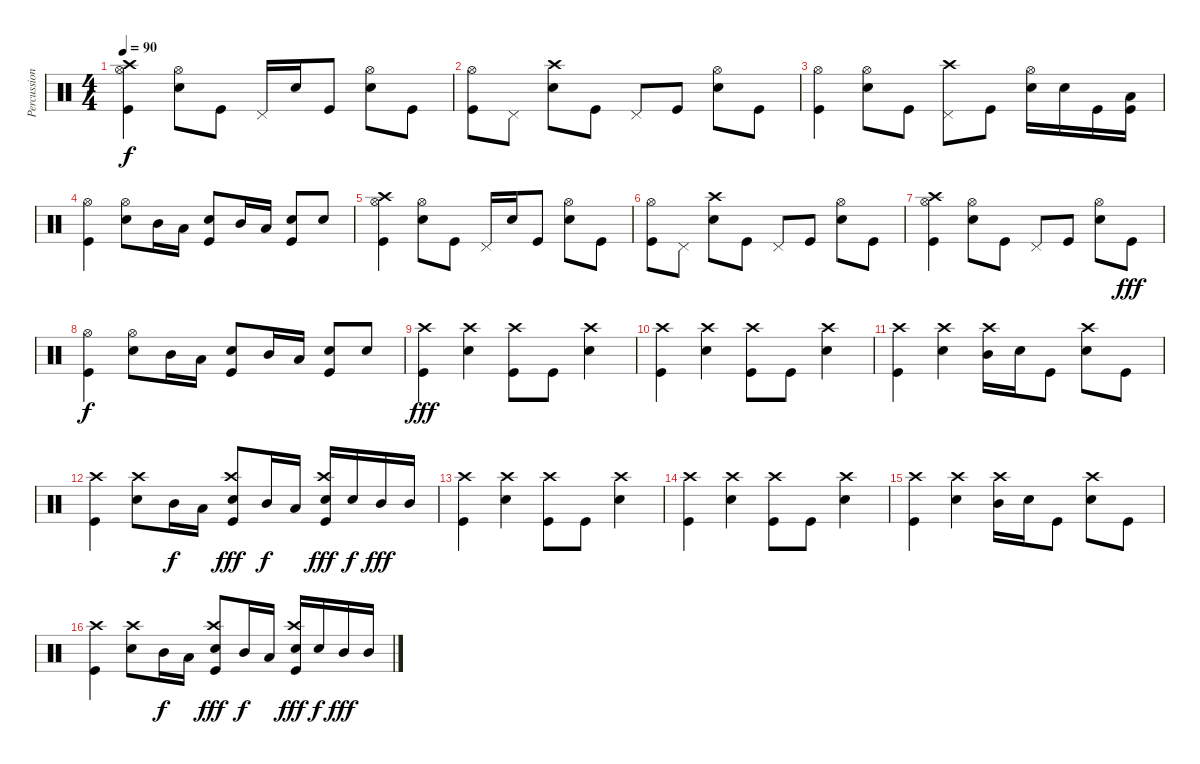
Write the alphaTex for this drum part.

\track ("Percussion" "Percussion") {instrument percussion}
\staff {score}
\articulation defaults
\ts (4 4)
\tempo 90
\clef neutral
\ks c
("Kick (hit)" "Hi-Hat (open)" "Crash high (hit)").4{dy f} ("Snare (hit) 2" "Hi-Hat (open)").8 "Kick (hit)".8 "Pedal Hi-Hat (hit)".16 "Snare (hit) 2".16 "Kick (hit)".8 ("Snare (hit) 2" "Hi-Hat (open)").8 "Kick (hit)".8 |
("Kick (hit)" "Hi-Hat (open)").8 "Pedal Hi-Hat (hit)".8 ("Snare (hit) 2" "Crash high (hit)").8 "Kick (hit)".8 "Pedal Hi-Hat (hit)".8 "Kick (hit)".8 ("Snare (hit) 2" "Hi-Hat (open)").8 "Kick (hit)".8 |
("Kick (hit)" "Hi-Hat (open)").4 ("Snare (hit) 2" "Hi-Hat (open)").8 "Kick (hit)".8 ("Crash high (hit)" "Pedal Hi-Hat (hit)").8 "Kick (hit)".8 ("Snare (hit) 2" "Hi-Hat (open)").16 "Snare (hit) 2".16 "Kick (hit)".16 ("Kick (hit)" "Low Tom (hit)").16 |
("Kick (hit)" "Hi-Hat (open)").4 ("Snare (hit) 2" "Hi-Hat (open)").8 "Mid Tom (hit)".16 "Low Tom (hit)".16 ("Kick (hit)" "Snare (hit) 2").8 "Mid Tom (hit)".16 "Low Tom (hit)".16 ("Kick (hit)" "Snare (hit) 2").8 "Snare (hit) 2".8 |
("Kick (hit)" "Hi-Hat (open)" "Crash high (hit)").4 ("Snare (hit) 2" "Hi-Hat (open)").8 "Kick (hit)".8 "Pedal Hi-Hat (hit)".16 "Snare (hit) 2".16 "Kick (hit)".8 ("Snare (hit) 2" "Hi-Hat (open)").8 "Kick (hit)".8 |
("Kick (hit)" "Hi-Hat (open)").8 "Pedal Hi-Hat (hit)".8 ("Snare (hit) 2" "Crash high (hit)").8 "Kick (hit)".8 "Pedal Hi-Hat (hit)".8 "Kick (hit)".8 ("Snare (hit) 2" "Hi-Hat (open)").8 "Kick (hit)".8 |
("Kick (hit)" "Crash high (hit)" "Hi-Hat (open)").4 ("Snare (hit) 2" "Hi-Hat (open)").8 "Kick (hit)".8 "Pedal Hi-Hat (hit)".8 "Kick (hit)".8 ("Snare (hit) 2" "Hi-Hat (open)").8 "Kick (hit)".8{dy fff} |
("Kick (hit)" "Hi-Hat (open)").4{dy f} ("Snare (hit) 2" "Hi-Hat (open)").8 "Mid Tom (hit)".16 "Low Tom (hit)".16 ("Kick (hit)" "Snare (hit) 2").8 "Mid Tom (hit)".16 "Low Tom (hit)".16 ("Kick (hit)" "Snare (hit) 2").8 "Snare (hit) 2".8 |
("Crash high (hit)" "Kick (hit)").4{dy fff} ("Crash high (hit)" "Snare (hit) 2").4 ("Crash high (hit)" "Kick (hit)").8 "Kick (hit)".8 ("Crash high (hit)" "Snare (hit) 2").4 |
("Crash high (hit)" "Kick (hit)").4 ("Crash high (hit)" "Snare (hit) 2").4 ("Crash high (hit)" "Kick (hit)").8 "Kick (hit)".8 ("Crash high (hit)" "Snare (hit) 2").4 |
("Crash high (hit)" "Kick (hit)").4 ("Crash high (hit)" "Snare (hit) 2").4 ("Crash high (hit)" "Mid Tom (hit)").16 "Snare (hit) 2".16 "Kick (hit)".8 ("Snare (hit) 2" "Crash high (hit)").8 "Kick (hit)".8 |
("Kick (hit)" "Crash high (hit)").4 ("Snare (hit) 2" "Crash high (hit)").8 "Mid Tom (hit)".16{dy f} "Low Tom (hit)".16 ("Kick (hit)" "Snare (hit) 2" "Crash high (hit)").8{dy fff} "Mid Tom (hit)".16{dy f} "Low Tom (hit)".16 ("Kick (hit)" "Snare (hit) 2" "Crash high (hit)").16{dy fff} "Snare (hit) 2".16{dy f} "Mid Tom (hit)".16{dy fff} "Mid Tom (hit)".16 |
("Crash high (hit)" "Kick (hit)").4 ("Crash high (hit)" "Snare (hit) 2").4 ("Crash high (hit)" "Kick (hit)").8 "Kick (hit)".8 ("Crash high (hit)" "Snare (hit) 2").4 |
("Crash high (hit)" "Kick (hit)").4 ("Crash high (hit)" "Snare (hit) 2").4 ("Crash high (hit)" "Kick (hit)").8 "Kick (hit)".8 ("Crash high (hit)" "Snare (hit) 2").4 |
("Crash high (hit)" "Kick (hit)").4 ("Crash high (hit)" "Snare (hit) 2").4 ("Crash high (hit)" "Mid Tom (hit)").16 "Snare (hit) 2".16 "Kick (hit)".8 ("Snare (hit) 2" "Crash high (hit)").8 "Kick (hit)".8 |
("Kick (hit)" "Crash high (hit)").4 ("Snare (hit) 2" "Crash high (hit)").8 "Mid Tom (hit)".16{dy f} "Low Tom (hit)".16 ("Kick (hit)" "Snare (hit) 2" "Crash high (hit)").8{dy fff} "Mid Tom (hit)".16{dy f} "Low Tom (hit)".16 ("Kick (hit)" "Snare (hit) 2" "Crash high (hit)").16{dy fff} "Snare (hit) 2".16{dy f} "Mid Tom (hit)".16{dy fff} "Mid Tom (hit)".16
